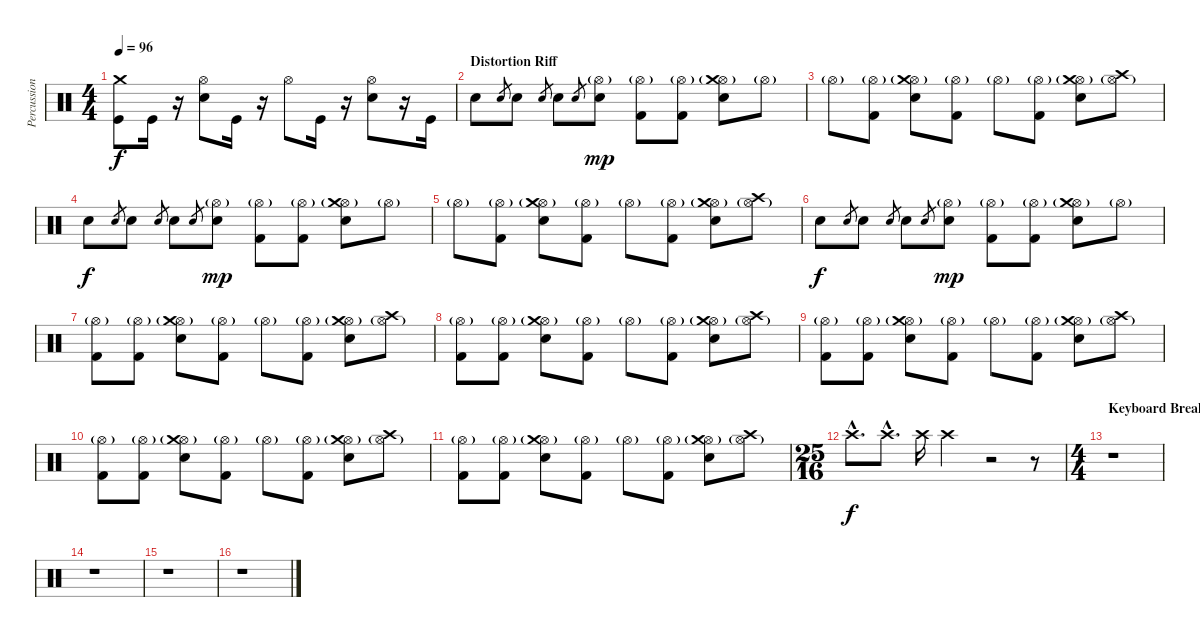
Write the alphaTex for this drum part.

\track ("Percussion" "Percussion") {instrument percussion}
\staff {score}
\articulation defaults
\ts (4 4)
\tempo 96
\clef neutral
\ks c
("Crash medium (hit)" "Kick (hit)").8{dy f} "Kick (hit)".16 r.16 ("Hi-Hat (open)" "Electric Snare (hit)").8 "Kick (hit)".16 r.16 "Hi-Hat (open)".8 "Kick (hit)".16 r.16 ("Hi-Hat (open)" "Electric Snare (hit)").8 r.16 "Kick (hit)".16 |
\section ("" "Distortion Riff")
"Electric Snare (hit)".8 "Electric Snare (hit)".8{gr} "Electric Snare (hit)".8 "Electric Snare (hit)".8{gr} "Electric Snare (hit)".8 "Electric Snare (hit)".8{gr} ("Hi-Hat (open)"{g} "Electric Snare (hit)").8{dy mp} ("Hi-Hat (open)"{g} "Kick (hit) 2").8 ("Hi-Hat (open)"{g} "Kick (hit) 2").8 ("Hi-Hat (open)"{g} "Crash medium (hit)" "Electric Snare (hit)").8 "Hi-Hat (open)"{g}.8 |
"Hi-Hat (open)"{g}.8 ("Hi-Hat (open)"{g} "Kick (hit) 2").8 ("Hi-Hat (open)"{g} "Crash medium (hit)" "Electric Snare (hit)").8 ("Hi-Hat (open)"{g} "Kick (hit) 2").8 "Hi-Hat (open)"{g}.8 ("Hi-Hat (open)"{g} "Kick (hit) 2").8 ("Hi-Hat (open)"{g} "Crash medium (hit)" "Electric Snare (hit)").8 ("Hi-Hat (open)"{g} "Crash high (hit)").8 |
"Electric Snare (hit)".8{dy f} "Electric Snare (hit)".8{gr} "Electric Snare (hit)".8 "Electric Snare (hit)".8{gr} "Electric Snare (hit)".8 "Electric Snare (hit)".8{gr} ("Hi-Hat (open)"{g} "Electric Snare (hit)").8{dy mp} ("Hi-Hat (open)"{g} "Kick (hit) 2").8 ("Hi-Hat (open)"{g} "Kick (hit) 2").8 ("Hi-Hat (open)"{g} "Crash medium (hit)" "Electric Snare (hit)").8 "Hi-Hat (open)"{g}.8 |
"Hi-Hat (open)"{g}.8 ("Hi-Hat (open)"{g} "Kick (hit) 2").8 ("Hi-Hat (open)"{g} "Crash medium (hit)" "Electric Snare (hit)").8 ("Hi-Hat (open)"{g} "Kick (hit) 2").8 "Hi-Hat (open)"{g}.8 ("Hi-Hat (open)"{g} "Kick (hit) 2").8 ("Hi-Hat (open)"{g} "Crash medium (hit)" "Electric Snare (hit)").8 ("Hi-Hat (open)"{g} "Crash high (hit)").8 |
"Electric Snare (hit)".8{dy f} "Electric Snare (hit)".8{gr} "Electric Snare (hit)".8 "Electric Snare (hit)".8{gr} "Electric Snare (hit)".8 "Electric Snare (hit)".8{gr} ("Hi-Hat (open)"{g} "Electric Snare (hit)").8{dy mp} ("Hi-Hat (open)"{g} "Kick (hit) 2").8 ("Hi-Hat (open)"{g} "Kick (hit) 2").8 ("Hi-Hat (open)"{g} "Crash medium (hit)" "Electric Snare (hit)").8 "Hi-Hat (open)"{g}.8 |
("Hi-Hat (open)"{g} "Kick (hit) 2").8 ("Hi-Hat (open)"{g} "Kick (hit) 2").8 ("Hi-Hat (open)"{g} "Crash medium (hit)" "Electric Snare (hit)").8 ("Hi-Hat (open)"{g} "Kick (hit) 2").8 "Hi-Hat (open)"{g}.8 ("Hi-Hat (open)"{g} "Kick (hit) 2").8 ("Hi-Hat (open)"{g} "Crash medium (hit)" "Electric Snare (hit)").8 ("Hi-Hat (open)"{g} "Crash high (hit)").8 |
("Hi-Hat (open)"{g} "Kick (hit) 2").8 ("Hi-Hat (open)"{g} "Kick (hit) 2").8 ("Hi-Hat (open)"{g} "Crash medium (hit)" "Electric Snare (hit)").8 ("Hi-Hat (open)"{g} "Kick (hit) 2").8 "Hi-Hat (open)"{g}.8 ("Hi-Hat (open)"{g} "Kick (hit) 2").8 ("Hi-Hat (open)"{g} "Crash medium (hit)" "Electric Snare (hit)").8 ("Hi-Hat (open)"{g} "Crash high (hit)").8 |
("Hi-Hat (open)"{g} "Kick (hit) 2").8 ("Hi-Hat (open)"{g} "Kick (hit) 2").8 ("Hi-Hat (open)"{g} "Crash medium (hit)" "Electric Snare (hit)").8 ("Hi-Hat (open)"{g} "Kick (hit) 2").8 "Hi-Hat (open)"{g}.8 ("Hi-Hat (open)"{g} "Kick (hit) 2").8 ("Hi-Hat (open)"{g} "Crash medium (hit)" "Electric Snare (hit)").8 ("Hi-Hat (open)"{g} "Crash high (hit)").8 |
("Hi-Hat (open)"{g} "Kick (hit) 2").8 ("Hi-Hat (open)"{g} "Kick (hit) 2").8 ("Hi-Hat (open)"{g} "Crash medium (hit)" "Electric Snare (hit)").8 ("Hi-Hat (open)"{g} "Kick (hit) 2").8 "Hi-Hat (open)"{g}.8 ("Hi-Hat (open)"{g} "Kick (hit) 2").8 ("Hi-Hat (open)"{g} "Crash medium (hit)" "Electric Snare (hit)").8 ("Hi-Hat (open)"{g} "Crash high (hit)").8 |
("Hi-Hat (open)"{g} "Kick (hit) 2").8 ("Hi-Hat (open)"{g} "Kick (hit) 2").8 ("Hi-Hat (open)"{g} "Crash medium (hit)" "Electric Snare (hit)").8 ("Hi-Hat (open)"{g} "Kick (hit) 2").8 "Hi-Hat (open)"{g}.8 ("Hi-Hat (open)"{g} "Kick (hit) 2").8 ("Hi-Hat (open)"{g} "Crash medium (hit)" "Electric Snare (hit)").8 ("Hi-Hat (open)"{g} "Crash high (hit)").8 |
\ts (25 16)
"Crash high (hit)"{hac}.8{d dy f} "Crash high (hit)"{hac}.8{d} "Crash high (hit)".16 "Crash high (hit)".2 r.2 r.8 |
\ts (4 4)
\section ("" "Keyboard Break")
r.1 |
r.1 |
r.1 |
r.1
